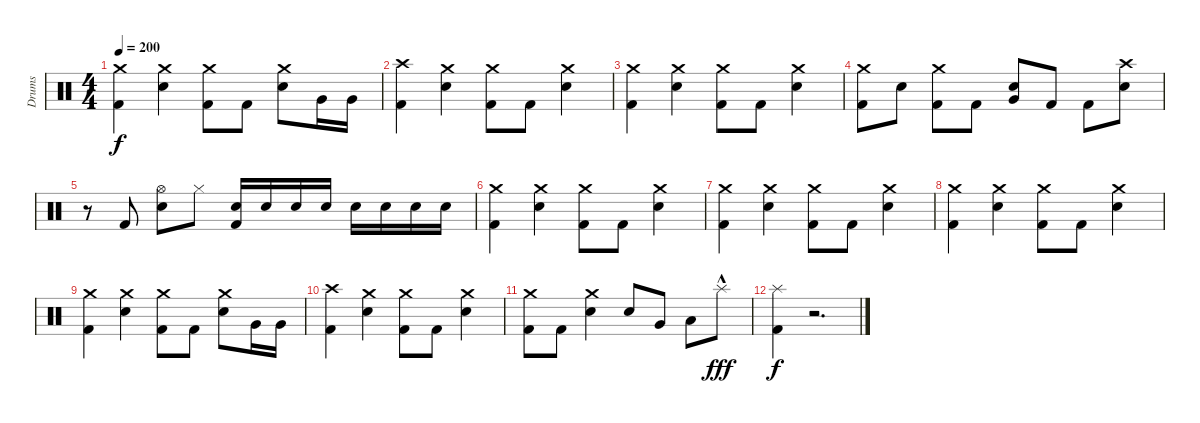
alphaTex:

\track ("Drums" "Drums") {instrument percussion}
\staff {score}
\articulation defaults
\ts (4 4)
\tempo 200
\clef neutral
\ks c
("Crash medium (hit)" "Kick (hit) 2").4{dy f} ("Crash medium (hit)" "Snare (hit) 2").4 ("Crash medium (hit)" "Kick (hit) 2").8 "Kick (hit) 2".8 ("Crash medium (hit)" "Snare (hit) 2").8 "Very Low Tom (hit)".16 "Very Low Tom (hit)".16 |
("Crash high (hit)" "Kick (hit) 2").4 ("Crash medium (hit)" "Snare (hit) 2").4 ("Crash medium (hit)" "Kick (hit) 2").8 "Kick (hit) 2".8 ("Crash medium (hit)" "Snare (hit) 2").4 |
("Crash medium (hit)" "Kick (hit) 2").4 ("Crash medium (hit)" "Snare (hit) 2").4 ("Crash medium (hit)" "Kick (hit) 2").8 "Kick (hit) 2".8 ("Crash medium (hit)" "Snare (hit) 2").4 |
("Crash medium (hit)" "Kick (hit) 2").8 "Snare (hit) 2".8 ("Crash medium (hit)" "Kick (hit) 2").8 "Kick (hit) 2".8 ("Snare (hit) 2" "Very Low Tom (hit)").8 "Kick (hit) 2".8 "Kick (hit) 2".8 ("Crash high (hit)" "Snare (hit) 2").8 |
r.8 "Kick (hit) 2".8 ("Hi-Hat (open)" "Snare (hit) 2").8 "Hi-Hat (closed)".8 ("Snare (hit) 2" "Kick (hit) 2").16 "Snare (hit) 2".16 "Snare (hit) 2".16 "Snare (hit) 2".16 "Snare (hit) 2".16 "Snare (hit) 2".16 "Snare (hit) 2".16 "Snare (hit) 2".16 |
("Crash medium (hit)" "Kick (hit) 2").4 ("Crash medium (hit)" "Snare (hit) 2").4 ("Crash medium (hit)" "Kick (hit) 2").8 "Kick (hit) 2".8 ("Crash medium (hit)" "Snare (hit) 2").4 |
("Crash medium (hit)" "Kick (hit) 2").4 ("Crash medium (hit)" "Snare (hit) 2").4 ("Crash medium (hit)" "Kick (hit) 2").8 "Kick (hit) 2".8 ("Crash medium (hit)" "Snare (hit) 2").4 |
("Crash medium (hit)" "Kick (hit) 2").4 ("Crash medium (hit)" "Snare (hit) 2").4 ("Crash medium (hit)" "Kick (hit) 2").8 "Kick (hit) 2".8 ("Crash medium (hit)" "Snare (hit) 2").4 |
("Crash medium (hit)" "Kick (hit) 2").4 ("Crash medium (hit)" "Snare (hit) 2").4 ("Crash medium (hit)" "Kick (hit) 2").8 "Kick (hit) 2".8 ("Crash medium (hit)" "Snare (hit) 2").8 "Very Low Tom (hit)".16 "Very Low Tom (hit)".16 |
("Crash high (hit)" "Kick (hit) 2").4 ("Crash medium (hit)" "Snare (hit) 2").4 ("Crash medium (hit)" "Kick (hit) 2").8 "Kick (hit) 2".8 ("Crash medium (hit)" "Snare (hit) 2").4 |
("Crash medium (hit)" "Kick (hit) 2").8 "Kick (hit) 2".8 ("Crash medium (hit)" "Snare (hit) 2").4 "Snare (hit) 2".8 "Very Low Tom (hit)".8 "Low Floor Tom (hit)".8 "Splash (hit)"{hac}.8{dy fff} |
("Splash (hit)" "Kick (hit) 2").4{dy f} r.2{d}
